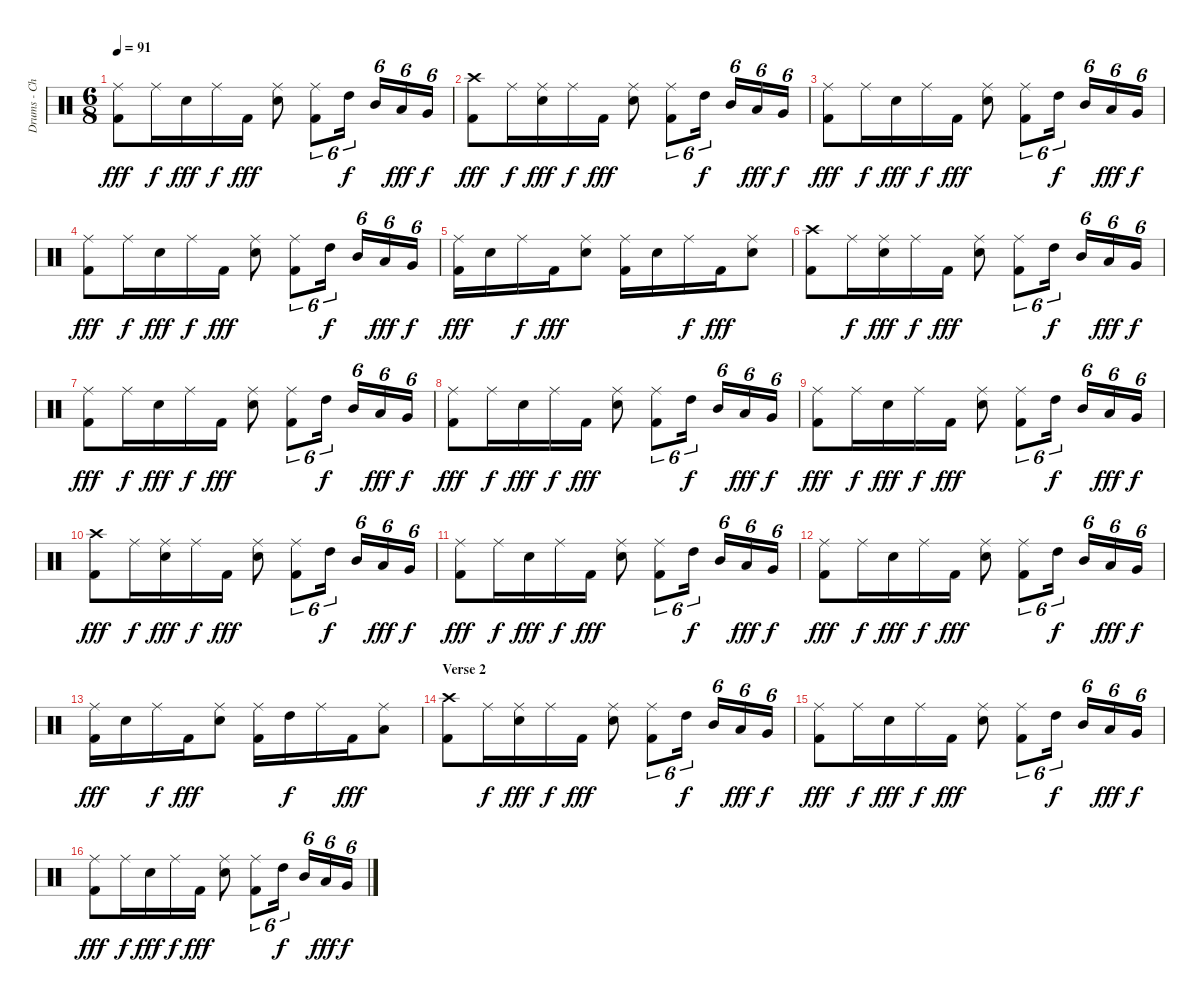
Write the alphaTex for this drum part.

\track ("Drums - Chad" "Drums - Ch") {instrument percussion}
\staff {score}
\articulation defaults
\ts (6 8)
\tempo 91
\clef neutral
\ks c
("Ride (middle)" "Kick (hit) 2").8{dy fff} "Ride (middle)".16{dy f} "Electric Snare (hit)".16{dy fff} "Ride (middle)".16{dy f} "Kick (hit) 2".16{dy fff} ("Ride (middle)" "Electric Snare (hit)").8 ("Ride (middle)" "Kick (hit) 2").8{tu (6 4)} "High Tom (hit)".16{tu (6 4) dy f} "Mid Tom (hit)".16{tu (6 4)} "Low Tom (hit)".16{tu (6 4) dy fff} "Very Low Tom (hit)".16{tu (6 4) dy f} |
("Crash high (hit)" "Kick (hit) 2").8{dy fff} "Ride (middle)".16{dy f} ("Ride (middle)" "Electric Snare (hit)").16{dy fff} "Ride (middle)".16{dy f} "Kick (hit) 2".16{dy fff} ("Ride (middle)" "Electric Snare (hit)").8 ("Ride (middle)" "Kick (hit) 2").8{tu (6 4)} "High Tom (hit)".16{tu (6 4) dy f} "Mid Tom (hit)".16{tu (6 4)} "Low Tom (hit)".16{tu (6 4) dy fff} "Very Low Tom (hit)".16{tu (6 4) dy f} |
("Ride (middle)" "Kick (hit) 2").8{dy fff} "Ride (middle)".16{dy f} "Electric Snare (hit)".16{dy fff} "Ride (middle)".16{dy f} "Kick (hit) 2".16{dy fff} ("Ride (middle)" "Electric Snare (hit)").8 ("Ride (middle)" "Kick (hit) 2").8{tu (6 4)} "High Tom (hit)".16{tu (6 4) dy f} "Mid Tom (hit)".16{tu (6 4)} "Low Tom (hit)".16{tu (6 4) dy fff} "Very Low Tom (hit)".16{tu (6 4) dy f} |
("Ride (middle)" "Kick (hit) 2").8{dy fff} "Ride (middle)".16{dy f} "Electric Snare (hit)".16{dy fff} "Ride (middle)".16{dy f} "Kick (hit) 2".16{dy fff} ("Ride (middle)" "Electric Snare (hit)").8 ("Ride (middle)" "Kick (hit) 2").8{tu (6 4)} "High Tom (hit)".16{tu (6 4) dy f} "Mid Tom (hit)".16{tu (6 4)} "Low Tom (hit)".16{tu (6 4) dy fff} "Very Low Tom (hit)".16{tu (6 4) dy f} |
("Ride (middle)" "Kick (hit) 2").16{dy fff} "Electric Snare (hit)".16 "Ride (middle)".16{dy f} "Kick (hit) 2".16{dy fff} ("Ride (middle)" "Electric Snare (hit)").8 ("Ride (middle)" "Kick (hit) 2").16 "Electric Snare (hit)".16 "Ride (middle)".16{dy f} "Kick (hit) 2".16{dy fff} ("Ride (middle)" "Electric Snare (hit)").8 |
("Crash high (hit)" "Kick (hit) 2").8 "Ride (middle)".16{dy f} ("Ride (middle)" "Electric Snare (hit)").16{dy fff} "Ride (middle)".16{dy f} "Kick (hit) 2".16{dy fff} ("Ride (middle)" "Electric Snare (hit)").8 ("Ride (middle)" "Kick (hit) 2").8{tu (6 4)} "High Tom (hit)".16{tu (6 4) dy f} "Mid Tom (hit)".16{tu (6 4)} "Low Tom (hit)".16{tu (6 4) dy fff} "Very Low Tom (hit)".16{tu (6 4) dy f} |
("Ride (middle)" "Kick (hit) 2").8{dy fff} "Ride (middle)".16{dy f} "Electric Snare (hit)".16{dy fff} "Ride (middle)".16{dy f} "Kick (hit) 2".16{dy fff} ("Ride (middle)" "Electric Snare (hit)").8 ("Ride (middle)" "Kick (hit) 2").8{tu (6 4)} "High Tom (hit)".16{tu (6 4) dy f} "Mid Tom (hit)".16{tu (6 4)} "Low Tom (hit)".16{tu (6 4) dy fff} "Very Low Tom (hit)".16{tu (6 4) dy f} |
("Ride (middle)" "Kick (hit) 2").8{dy fff} "Ride (middle)".16{dy f} "Electric Snare (hit)".16{dy fff} "Ride (middle)".16{dy f} "Kick (hit) 2".16{dy fff} ("Ride (middle)" "Electric Snare (hit)").8 ("Ride (middle)" "Kick (hit) 2").8{tu (6 4)} "High Tom (hit)".16{tu (6 4) dy f} "Mid Tom (hit)".16{tu (6 4)} "Low Tom (hit)".16{tu (6 4) dy fff} "Very Low Tom (hit)".16{tu (6 4) dy f} |
("Ride (middle)" "Kick (hit) 2").8{dy fff} "Ride (middle)".16{dy f} "Electric Snare (hit)".16{dy fff} "Ride (middle)".16{dy f} "Kick (hit) 2".16{dy fff} ("Ride (middle)" "Electric Snare (hit)").8 ("Ride (middle)" "Kick (hit) 2").8{tu (6 4)} "High Tom (hit)".16{tu (6 4) dy f} "Mid Tom (hit)".16{tu (6 4)} "Low Tom (hit)".16{tu (6 4) dy fff} "Very Low Tom (hit)".16{tu (6 4) dy f} |
("Crash high (hit)" "Kick (hit) 2").8{dy fff} "Ride (middle)".16{dy f} ("Ride (middle)" "Electric Snare (hit)").16{dy fff} "Ride (middle)".16{dy f} "Kick (hit) 2".16{dy fff} ("Ride (middle)" "Electric Snare (hit)").8 ("Ride (middle)" "Kick (hit) 2").8{tu (6 4)} "High Tom (hit)".16{tu (6 4) dy f} "Mid Tom (hit)".16{tu (6 4)} "Low Tom (hit)".16{tu (6 4) dy fff} "Very Low Tom (hit)".16{tu (6 4) dy f} |
("Ride (middle)" "Kick (hit) 2").8{dy fff} "Ride (middle)".16{dy f} "Electric Snare (hit)".16{dy fff} "Ride (middle)".16{dy f} "Kick (hit) 2".16{dy fff} ("Ride (middle)" "Electric Snare (hit)").8 ("Ride (middle)" "Kick (hit) 2").8{tu (6 4)} "High Tom (hit)".16{tu (6 4) dy f} "Mid Tom (hit)".16{tu (6 4)} "Low Tom (hit)".16{tu (6 4) dy fff} "Very Low Tom (hit)".16{tu (6 4) dy f} |
("Ride (middle)" "Kick (hit) 2").8{dy fff} "Ride (middle)".16{dy f} "Electric Snare (hit)".16{dy fff} "Ride (middle)".16{dy f} "Kick (hit) 2".16{dy fff} ("Ride (middle)" "Electric Snare (hit)").8 ("Ride (middle)" "Kick (hit) 2").8{tu (6 4)} "High Tom (hit)".16{tu (6 4) dy f} "Mid Tom (hit)".16{tu (6 4)} "Low Tom (hit)".16{tu (6 4) dy fff} "Very Low Tom (hit)".16{tu (6 4) dy f} |
("Ride (middle)" "Kick (hit) 2").16{dy fff} "Electric Snare (hit)".16 "Ride (middle)".16{dy f} "Kick (hit) 2".16{dy fff} ("Ride (middle)" "Electric Snare (hit)").8 ("Ride (middle)" "Kick (hit) 2").16 "High Tom (hit)".16{dy f} "Ride (middle)".16 "Kick (hit) 2".16{dy fff} ("Ride (middle)" "Low Tom (hit)").8 |
\section ("" "Verse 2")
("Crash high (hit)" "Kick (hit) 2").8 "Ride (middle)".16{dy f} ("Ride (middle)" "Electric Snare (hit)").16{dy fff} "Ride (middle)".16{dy f} "Kick (hit) 2".16{dy fff} ("Ride (middle)" "Electric Snare (hit)").8 ("Ride (middle)" "Kick (hit) 2").8{tu (6 4)} "High Tom (hit)".16{tu (6 4) dy f} "Mid Tom (hit)".16{tu (6 4)} "Low Tom (hit)".16{tu (6 4) dy fff} "Very Low Tom (hit)".16{tu (6 4) dy f} |
("Ride (middle)" "Kick (hit) 2").8{dy fff} "Ride (middle)".16{dy f} "Electric Snare (hit)".16{dy fff} "Ride (middle)".16{dy f} "Kick (hit) 2".16{dy fff} ("Ride (middle)" "Electric Snare (hit)").8 ("Ride (middle)" "Kick (hit) 2").8{tu (6 4)} "High Tom (hit)".16{tu (6 4) dy f} "Mid Tom (hit)".16{tu (6 4)} "Low Tom (hit)".16{tu (6 4) dy fff} "Very Low Tom (hit)".16{tu (6 4) dy f} |
("Ride (middle)" "Kick (hit) 2").8{dy fff} "Ride (middle)".16{dy f} "Electric Snare (hit)".16{dy fff} "Ride (middle)".16{dy f} "Kick (hit) 2".16{dy fff} ("Ride (middle)" "Electric Snare (hit)").8 ("Ride (middle)" "Kick (hit) 2").8{tu (6 4)} "High Tom (hit)".16{tu (6 4) dy f} "Mid Tom (hit)".16{tu (6 4)} "Low Tom (hit)".16{tu (6 4) dy fff} "Very Low Tom (hit)".16{tu (6 4) dy f}
